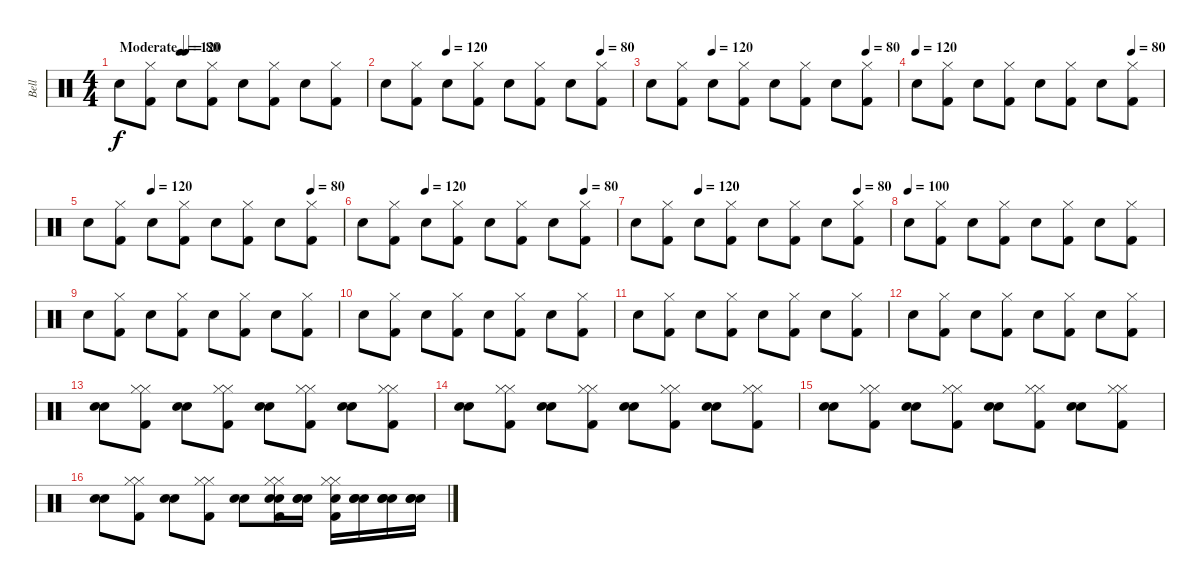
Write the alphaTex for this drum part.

\track ("Bell" "Bell") {instrument percussion}
\staff {score}
\articulation defaults
\ts (4 4)
\tempo (80 "Moderate")
\tempo (120 0.25)
\tempo (80 "Moderate")
\clef neutral
\ks c "Snare (hit) 2".8{dy f}
("Kick (hit) 2" "Hi-Hat (closed)").8 "Snare (hit) 2".8 ("Kick (hit) 2" "Hi-Hat (closed)").8 "Snare (hit) 2".8 ("Kick (hit) 2" "Hi-Hat (closed)").8 "Snare (hit) 2".8 ("Kick (hit) 2" "Hi-Hat (closed)").8 |
\tempo (120 0.25)
\tempo (80 0.875)
"Snare (hit) 2".8 ("Kick (hit) 2" "Hi-Hat (closed)").8 "Snare (hit) 2".8 ("Kick (hit) 2" "Hi-Hat (closed)").8 "Snare (hit) 2".8 ("Kick (hit) 2" "Hi-Hat (closed)").8 "Snare (hit) 2".8 ("Kick (hit) 2" "Hi-Hat (closed)").8 |
\tempo (120 0.25)
\tempo (80 0.875)
"Snare (hit) 2".8 ("Kick (hit) 2" "Hi-Hat (closed)").8 "Snare (hit) 2".8 ("Kick (hit) 2" "Hi-Hat (closed)").8 "Snare (hit) 2".8 ("Kick (hit) 2" "Hi-Hat (closed)").8 "Snare (hit) 2".8 ("Kick (hit) 2" "Hi-Hat (closed)").8 |
\tempo 120
\tempo (80 0.875)
"Snare (hit) 2".8 ("Kick (hit) 2" "Hi-Hat (closed)").8 "Snare (hit) 2".8 ("Kick (hit) 2" "Hi-Hat (closed)").8 "Snare (hit) 2".8 ("Kick (hit) 2" "Hi-Hat (closed)").8 "Snare (hit) 2".8 ("Kick (hit) 2" "Hi-Hat (closed)").8 |
\tempo (120 0.25)
\tempo (80 0.875)
"Snare (hit) 2".8 ("Kick (hit) 2" "Hi-Hat (closed)").8 "Snare (hit) 2".8 ("Kick (hit) 2" "Hi-Hat (closed)").8 "Snare (hit) 2".8 ("Kick (hit) 2" "Hi-Hat (closed)").8 "Snare (hit) 2".8 ("Kick (hit) 2" "Hi-Hat (closed)").8 |
\tempo (120 0.25)
\tempo (80 0.875)
"Snare (hit) 2".8 ("Kick (hit) 2" "Hi-Hat (closed)").8 "Snare (hit) 2".8 ("Kick (hit) 2" "Hi-Hat (closed)").8 "Snare (hit) 2".8 ("Kick (hit) 2" "Hi-Hat (closed)").8 "Snare (hit) 2".8 ("Kick (hit) 2" "Hi-Hat (closed)").8 |
\tempo (120 0.25)
\tempo (80 0.875)
"Snare (hit) 2".8 ("Kick (hit) 2" "Hi-Hat (closed)").8 "Snare (hit) 2".8 ("Kick (hit) 2" "Hi-Hat (closed)").8 "Snare (hit) 2".8 ("Kick (hit) 2" "Hi-Hat (closed)").8 "Snare (hit) 2".8 ("Kick (hit) 2" "Hi-Hat (closed)").8 |
\tempo (100)
"Snare (hit) 2".8 ("Kick (hit) 2" "Hi-Hat (closed)").8 "Snare (hit) 2".8 ("Kick (hit) 2" "Hi-Hat (closed)").8 "Snare (hit) 2".8 ("Kick (hit) 2" "Hi-Hat (closed)").8 "Snare (hit) 2".8 ("Kick (hit) 2" "Hi-Hat (closed)").8 |
"Snare (hit) 2".8 ("Kick (hit) 2" "Hi-Hat (closed)").8 "Snare (hit) 2".8 ("Kick (hit) 2" "Hi-Hat (closed)").8 "Snare (hit) 2".8 ("Kick (hit) 2" "Hi-Hat (closed)").8 "Snare (hit) 2".8 ("Kick (hit) 2" "Hi-Hat (closed)").8 |
"Snare (hit) 2".8 ("Kick (hit) 2" "Hi-Hat (closed)").8 "Snare (hit) 2".8 ("Kick (hit) 2" "Hi-Hat (closed)").8 "Snare (hit) 2".8 ("Kick (hit) 2" "Hi-Hat (closed)").8 "Snare (hit) 2".8 ("Kick (hit) 2" "Hi-Hat (closed)").8 |
"Snare (hit) 2".8 ("Kick (hit) 2" "Hi-Hat (closed)").8 "Snare (hit) 2".8 ("Kick (hit) 2" "Hi-Hat (closed)").8 "Snare (hit) 2".8 ("Kick (hit) 2" "Hi-Hat (closed)").8 "Snare (hit) 2".8 ("Kick (hit) 2" "Hi-Hat (closed)").8 |
"Snare (hit) 2".8 ("Kick (hit) 2" "Hi-Hat (closed)").8 "Snare (hit) 2".8 ("Kick (hit) 2" "Hi-Hat (closed)").8 "Snare (hit) 2".8 ("Kick (hit) 2" "Hi-Hat (closed)").8 "Snare (hit) 2".8 ("Kick (hit) 2" "Hi-Hat (closed)").8 |
("Snare (hit) 2" "Snare (hit) 2").8 ("Hi-Hat (closed)" "Kick (hit) 2" "Hi-Hat (closed)").8 ("Snare (hit) 2" "Snare (hit) 2").8 ("Hi-Hat (closed)" "Kick (hit) 2" "Hi-Hat (closed)").8 ("Snare (hit) 2" "Snare (hit) 2").8 ("Hi-Hat (closed)" "Kick (hit) 2" "Hi-Hat (closed)").8 ("Snare (hit) 2" "Snare (hit) 2").8 ("Hi-Hat (closed)" "Kick (hit) 2" "Hi-Hat (closed)").8 |
("Snare (hit) 2" "Snare (hit) 2").8 ("Hi-Hat (closed)" "Kick (hit) 2" "Hi-Hat (closed)").8 ("Snare (hit) 2" "Snare (hit) 2").8 ("Hi-Hat (closed)" "Kick (hit) 2" "Hi-Hat (closed)").8 ("Snare (hit) 2" "Snare (hit) 2").8 ("Hi-Hat (closed)" "Kick (hit) 2" "Hi-Hat (closed)").8 ("Snare (hit) 2" "Snare (hit) 2").8 ("Hi-Hat (closed)" "Kick (hit) 2" "Hi-Hat (closed)").8 |
("Snare (hit) 2" "Snare (hit) 2").8 ("Hi-Hat (closed)" "Kick (hit) 2" "Hi-Hat (closed)").8 ("Snare (hit) 2" "Snare (hit) 2").8 ("Hi-Hat (closed)" "Kick (hit) 2" "Hi-Hat (closed)").8 ("Snare (hit) 2" "Snare (hit) 2").8 ("Hi-Hat (closed)" "Kick (hit) 2" "Hi-Hat (closed)").8 ("Snare (hit) 2" "Snare (hit) 2").8 ("Hi-Hat (closed)" "Kick (hit) 2" "Hi-Hat (closed)").8 |
("Snare (hit) 2" "Snare (hit) 2").8 ("Hi-Hat (closed)" "Kick (hit) 2" "Hi-Hat (closed)").8 ("Snare (hit) 2" "Snare (hit) 2").8 ("Hi-Hat (closed)" "Kick (hit) 2" "Hi-Hat (closed)").8 ("Snare (hit) 2" "Snare (hit) 2").8 ("Snare (hit) 2" "Hi-Hat (closed)" "Kick (hit) 2" "Snare (hit) 2" "Hi-Hat (closed)").16 ("Snare (hit) 2" "Snare (hit) 2" "Snare (hit) 2").16 ("Snare (hit) 2" "Hi-Hat (closed)" "Kick (hit) 2" "Hi-Hat (closed)").16 ("Snare (hit) 2" "Snare (hit) 2" "Snare (hit) 2").16 ("Snare (hit) 2" "Snare (hit) 2" "Snare (hit) 2").16 ("Snare (hit) 2" "Snare (hit) 2" "Snare (hit) 2").16
